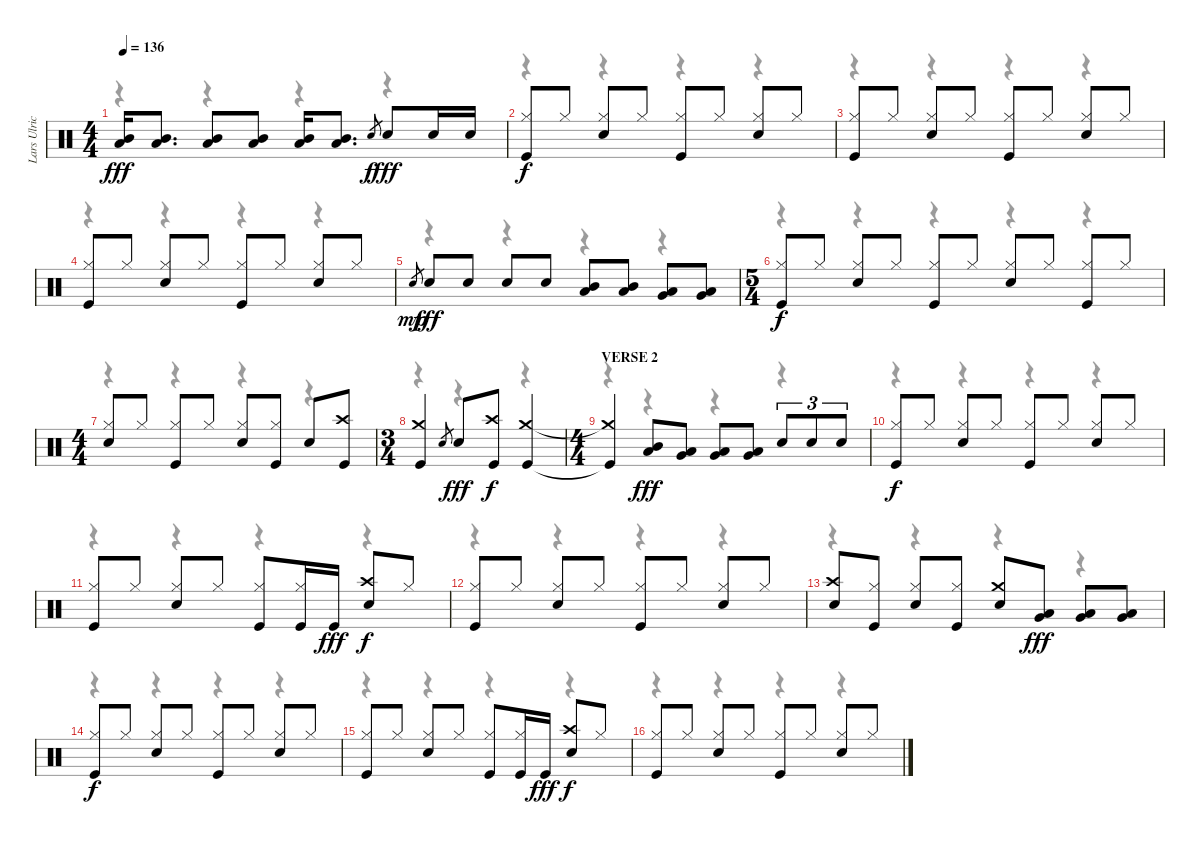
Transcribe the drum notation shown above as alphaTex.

\track ("Lars Ulrich" "Lars Ulric") {instrument percussion}
\staff {score}
\articulation defaults
\voice
\ts (4 4)
\tempo 136
\clef neutral
\ks c
("Mid Tom (hit)" "Low Tom (hit)").16{dy fff} ("Mid Tom (hit)" "Low Tom (hit)").8{d} ("Mid Tom (hit)" "Low Tom (hit)").8 ("Mid Tom (hit)" "Low Tom (hit)").8 ("Mid Tom (hit)" "Low Tom (hit)").16 ("Mid Tom (hit)" "Low Tom (hit)").8{d} "Snare (hit)".8{gr dy f} "Snare (hit) 2".8{dy fff} "Snare (hit) 2".16 "Snare (hit) 2".16 |
("Hi-Hat (closed)" "Kick (hit)").8{dy f} "Hi-Hat (closed)".8 ("Hi-Hat (closed)" "Snare (hit) 2").8 "Hi-Hat (closed)".8 ("Hi-Hat (closed)" "Kick (hit)").8 "Hi-Hat (closed)".8 ("Hi-Hat (closed)" "Snare (hit) 2").8 "Hi-Hat (closed)".8 |
("Hi-Hat (closed)" "Kick (hit)").8 "Hi-Hat (closed)".8 ("Hi-Hat (closed)" "Snare (hit) 2").8 "Hi-Hat (closed)".8 ("Hi-Hat (closed)" "Kick (hit)").8 "Hi-Hat (closed)".8 ("Hi-Hat (closed)" "Snare (hit) 2").8 "Hi-Hat (closed)".8 |
("Hi-Hat (closed)" "Kick (hit)").8 "Hi-Hat (closed)".8 ("Hi-Hat (closed)" "Snare (hit) 2").8 "Hi-Hat (closed)".8 ("Hi-Hat (closed)" "Kick (hit)").8 "Hi-Hat (closed)".8 ("Hi-Hat (closed)" "Snare (hit) 2").8 "Hi-Hat (closed)".8 |
"Snare (hit)".8{gr dy mp} "Snare (hit) 2".8{dy fff} "Snare (hit) 2".8 "Snare (hit) 2".8 "Snare (hit) 2".8 ("Mid Tom (hit)" "Low Tom (hit)").8 ("Mid Tom (hit)" "Low Tom (hit)").8 ("Low Tom (hit)" "Very Low Tom (hit)").8 ("Low Tom (hit)" "Very Low Tom (hit)").8 |
\ts (5 4)
("Hi-Hat (closed)" "Kick (hit)").8{dy f} "Hi-Hat (closed)".8 ("Hi-Hat (closed)" "Snare (hit) 2").8 "Hi-Hat (closed)".8 ("Hi-Hat (closed)" "Kick (hit)").8 "Hi-Hat (closed)".8 ("Hi-Hat (closed)" "Snare (hit) 2").8 "Hi-Hat (closed)".8 ("Hi-Hat (closed)" "Kick (hit)").8 "Hi-Hat (closed)".8 |
\ts (4 4)
("Hi-Hat (closed)" "Snare (hit) 2").8 "Hi-Hat (closed)".8 ("Hi-Hat (closed)" "Kick (hit)").8 "Hi-Hat (closed)".8 ("Hi-Hat (closed)" "Snare (hit) 2").8 ("Hi-Hat (closed)" "Kick (hit)").8 "Snare (hit) 2".8 ("Crash high (hit)" "Kick (hit)").8 |
\ts (3 4)
("Crash medium (hit)" "Kick (hit)").4 "Snare (hit)".8{gr} "Snare (hit) 2".8{dy fff} ("Crash high (hit)" "Kick (hit)").8{dy f} ("Crash medium (hit)" "Kick (hit)").4 |
\ts (4 4)
\section ("" "VERSE 2")
("Crash medium (hit)"{t} "Kick (hit)"{t}).4 ("Mid Tom (hit)" "Low Tom (hit)").8{dy fff} ("Low Tom (hit)" "Very Low Tom (hit)").8 ("Low Tom (hit)" "Very Low Tom (hit)").8 ("Very Low Tom (hit)" "Low Floor Tom (hit)").8 "Snare (hit) 2".8{tu (3 2)} "Snare (hit) 2".8{tu (3 2)} "Snare (hit) 2".8{tu (3 2)} |
("Hi-Hat (closed)" "Kick (hit)").8{dy f} "Hi-Hat (closed)".8 ("Hi-Hat (closed)" "Snare (hit) 2").8 "Hi-Hat (closed)".8 ("Hi-Hat (closed)" "Kick (hit)").8 "Hi-Hat (closed)".8 ("Hi-Hat (closed)" "Snare (hit) 2").8 "Hi-Hat (closed)".8 |
("Hi-Hat (closed)" "Kick (hit)").8 "Hi-Hat (closed)".8 ("Hi-Hat (closed)" "Snare (hit) 2").8 "Hi-Hat (closed)".8 ("Hi-Hat (closed)" "Kick (hit)").8 ("Hi-Hat (closed)" "Kick (hit)").16 "Kick (hit)".16{dy fff} ("Crash high (hit)" "Snare (hit) 2").8{dy f} "Hi-Hat (closed)".8 |
("Hi-Hat (closed)" "Kick (hit)").8 "Hi-Hat (closed)".8 ("Hi-Hat (closed)" "Snare (hit) 2").8 "Hi-Hat (closed)".8 ("Hi-Hat (closed)" "Kick (hit)").8 "Hi-Hat (closed)".8 ("Hi-Hat (closed)" "Snare (hit) 2").8 "Hi-Hat (closed)".8 |
("Crash high (hit)" "Snare (hit) 2").8 ("Hi-Hat (closed)" "Kick (hit)").8 ("Hi-Hat (closed)" "Snare (hit) 2").8 ("Hi-Hat (closed)" "Kick (hit)").8 ("Crash medium (hit)" "Snare (hit) 2").8 ("Low Tom (hit)" "Very Low Tom (hit)").8{dy fff} ("Low Tom (hit)" "Very Low Tom (hit)").8 ("Low Tom (hit)" "Very Low Tom (hit)").8 |
("Hi-Hat (closed)" "Kick (hit)").8{dy f} "Hi-Hat (closed)".8 ("Hi-Hat (closed)" "Snare (hit) 2").8 "Hi-Hat (closed)".8 ("Hi-Hat (closed)" "Kick (hit)").8 "Hi-Hat (closed)".8 ("Hi-Hat (closed)" "Snare (hit) 2").8 "Hi-Hat (closed)".8 |
("Hi-Hat (closed)" "Kick (hit)").8 "Hi-Hat (closed)".8 ("Hi-Hat (closed)" "Snare (hit) 2").8 "Hi-Hat (closed)".8 ("Hi-Hat (closed)" "Kick (hit)").8 ("Hi-Hat (closed)" "Kick (hit)").16 "Kick (hit)".16{dy fff} ("Crash high (hit)" "Snare (hit) 2").8{dy f} "Hi-Hat (closed)".8 |
("Hi-Hat (closed)" "Kick (hit)").8 "Hi-Hat (closed)".8 ("Hi-Hat (closed)" "Snare (hit) 2").8 "Hi-Hat (closed)".8 ("Hi-Hat (closed)" "Kick (hit)").8 "Hi-Hat (closed)".8 ("Hi-Hat (closed)" "Snare (hit) 2").8 "Hi-Hat (closed)".8
\voice
\clef neutral
\ottava regular
\simile none
\ks c
r.4{dy f} r.4 r.4 r.4 |
r.4 r.4 r.4 r.4 |
r.4 r.4 r.4 r.4 |
r.4 r.4 r.4 r.4 |
r.4 r.4 r.4 r.4 |
r.4 r.4 r.4 r.4 r.4 |
r.4 r.4 r.4 r.4 |
r.4 r.4 r.4 |
r.4 r.4 r.4 r.4 |
r.4 r.4 r.4 r.4 |
r.4 r.4 r.4 r.4 |
r.4 r.4 r.4 r.4 |
r.4 r.4 r.4 r.4 |
r.4 r.4 r.4 r.4 |
r.4 r.4 r.4 r.4 |
r.4 r.4 r.4 r.4
